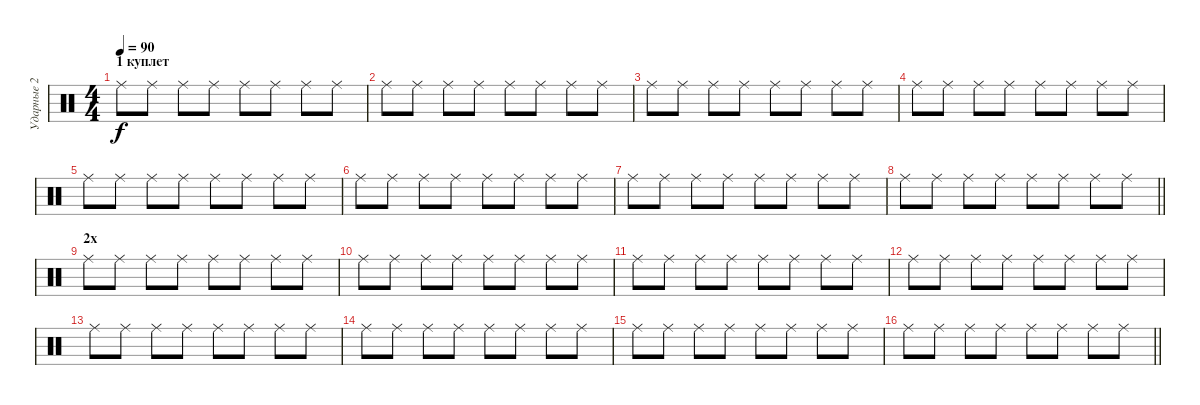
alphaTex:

\track ("Ударные 2" "Ударные 2") {instrument percussion}
\staff {score}
\articulation defaults
\ts (4 4)
\section ("" "1 куплет")
\tempo 90
\clef neutral
\ks c "Ride (middle)".8{dy f} "Ride (middle)".8 "Ride (middle)".8 "Ride (middle)".8 "Ride (middle)".8 "Ride (middle)".8 "Ride (middle)".8 "Ride (middle)".8
|
"Ride (middle)".8 "Ride (middle)".8 "Ride (middle)".8 "Ride (middle)".8 "Ride (middle)".8 "Ride (middle)".8 "Ride (middle)".8 "Ride (middle)".8 |
"Ride (middle)".8 "Ride (middle)".8 "Ride (middle)".8 "Ride (middle)".8 "Ride (middle)".8 "Ride (middle)".8 "Ride (middle)".8 "Ride (middle)".8 |
"Ride (middle)".8 "Ride (middle)".8 "Ride (middle)".8 "Ride (middle)".8 "Ride (middle)".8 "Ride (middle)".8 "Ride (middle)".8 "Ride (middle)".8 |
"Ride (middle)".8 "Ride (middle)".8 "Ride (middle)".8 "Ride (middle)".8 "Ride (middle)".8 "Ride (middle)".8 "Ride (middle)".8 "Ride (middle)".8 |
"Ride (middle)".8 "Ride (middle)".8 "Ride (middle)".8 "Ride (middle)".8 "Ride (middle)".8 "Ride (middle)".8 "Ride (middle)".8 "Ride (middle)".8 |
"Ride (middle)".8 "Ride (middle)".8 "Ride (middle)".8 "Ride (middle)".8 "Ride (middle)".8 "Ride (middle)".8 "Ride (middle)".8 "Ride (middle)".8 |
\barLineRight lightlight "Ride (middle)".8 "Ride (middle)".8 "Ride (middle)".8 "Ride (middle)".8 "Ride (middle)".8 "Ride (middle)".8 "Ride (middle)".8 "Ride (middle)".8
|
\section ("" "2х")
"Ride (middle)".8 "Ride (middle)".8 "Ride (middle)".8 "Ride (middle)".8 "Ride (middle)".8 "Ride (middle)".8 "Ride (middle)".8 "Ride (middle)".8 |
"Ride (middle)".8 "Ride (middle)".8 "Ride (middle)".8 "Ride (middle)".8 "Ride (middle)".8 "Ride (middle)".8 "Ride (middle)".8 "Ride (middle)".8 |
"Ride (middle)".8 "Ride (middle)".8 "Ride (middle)".8 "Ride (middle)".8 "Ride (middle)".8 "Ride (middle)".8 "Ride (middle)".8 "Ride (middle)".8 |
"Ride (middle)".8 "Ride (middle)".8 "Ride (middle)".8 "Ride (middle)".8 "Ride (middle)".8 "Ride (middle)".8 "Ride (middle)".8 "Ride (middle)".8 |
"Ride (middle)".8 "Ride (middle)".8 "Ride (middle)".8 "Ride (middle)".8 "Ride (middle)".8 "Ride (middle)".8 "Ride (middle)".8 "Ride (middle)".8 |
"Ride (middle)".8 "Ride (middle)".8 "Ride (middle)".8 "Ride (middle)".8 "Ride (middle)".8 "Ride (middle)".8 "Ride (middle)".8 "Ride (middle)".8 |
"Ride (middle)".8 "Ride (middle)".8 "Ride (middle)".8 "Ride (middle)".8 "Ride (middle)".8 "Ride (middle)".8 "Ride (middle)".8 "Ride (middle)".8 |
\barLineRight lightlight "Ride (middle)".8 "Ride (middle)".8 "Ride (middle)".8 "Ride (middle)".8 "Ride (middle)".8 "Ride (middle)".8 "Ride (middle)".8 "Ride (middle)".8
